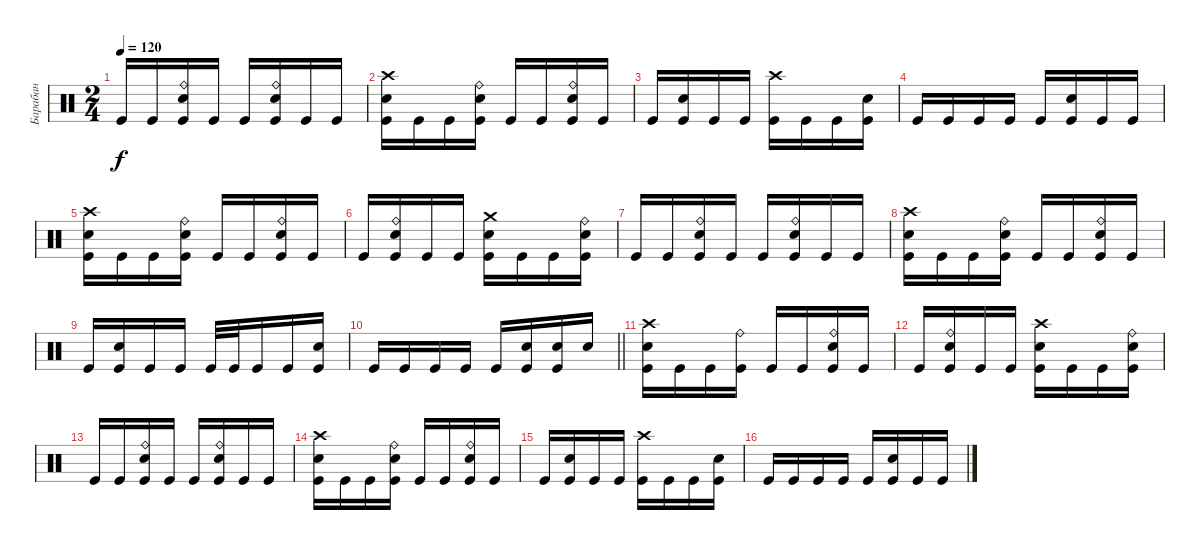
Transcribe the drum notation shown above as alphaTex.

\track ("Барабан" "Барабан") {instrument percussion}
\staff {score}
\articulation defaults
\ts (2 4)
\tempo 120
\clef neutral
\ks c "Kick (hit)".16{dy f} "Kick (hit)".16
("Ride (bell)" "Electric Snare (hit)" "Kick (hit)").16 "Kick (hit)".16 "Kick (hit)".16 ("Ride (bell)" "Electric Snare (hit)" "Kick (hit)").16 "Kick (hit)".16 "Kick (hit)".16 |
("Crash high (hit)" "Electric Snare (hit)" "Kick (hit)").16 "Kick (hit)".16 "Kick (hit)".16 ("Ride (bell)" "Electric Snare (hit)" "Kick (hit)").16 "Kick (hit)".16 "Kick (hit)".16 ("Ride (bell)" "Electric Snare (hit)" "Kick (hit)").16 "Kick (hit)".16 |
"Kick (hit)".16 ("Electric Snare (hit)" "Kick (hit)").16 "Kick (hit)".16 "Kick (hit)".16 ("Crash high (hit)" "Kick (hit)").16 "Kick (hit)".16 "Kick (hit)".16 ("Electric Snare (hit)" "Kick (hit)").16 |
"Kick (hit)".16 "Kick (hit)".16 "Kick (hit)".16 "Kick (hit)".16 "Kick (hit)".16 ("Electric Snare (hit)" "Kick (hit)").16 "Kick (hit)".16 "Kick (hit)".16 |
("Crash high (hit)" "Electric Snare (hit)" "Kick (hit)").16 "Kick (hit)".16 "Kick (hit)".16 ("Ride (bell)" "Electric Snare (hit)" "Kick (hit)").16 "Kick (hit)".16 "Kick (hit)".16 ("Ride (bell)" "Electric Snare (hit)" "Kick (hit)").16 "Kick (hit)".16 |
"Kick (hit)".16 ("Ride (bell)" "Electric Snare (hit)" "Kick (hit)").16 "Kick (hit)".16 "Kick (hit)".16 ("Crash medium (hit)" "Electric Snare (hit)" "Kick (hit)").16 "Kick (hit)".16 "Kick (hit)".16 ("Ride (bell)" "Electric Snare (hit)" "Kick (hit)").16 |
"Kick (hit)".16 "Kick (hit)".16 ("Ride (bell)" "Electric Snare (hit)" "Kick (hit)").16 "Kick (hit)".16 "Kick (hit)".16 ("Ride (bell)" "Electric Snare (hit)" "Kick (hit)").16 "Kick (hit)".16 "Kick (hit)".16 |
("Crash high (hit)" "Electric Snare (hit)" "Kick (hit)").16 "Kick (hit)".16 "Kick (hit)".16 ("Ride (bell)" "Electric Snare (hit)" "Kick (hit)").16 "Kick (hit)".16 "Kick (hit)".16 ("Ride (bell)" "Electric Snare (hit)" "Kick (hit)").16 "Kick (hit)".16 |
"Kick (hit)".16 ("Electric Snare (hit)" "Kick (hit)").16 "Kick (hit)".16 "Kick (hit)".16 "Kick (hit)".32 "Kick (hit)".32 "Kick (hit)".16 "Kick (hit)".16 ("Electric Snare (hit)" "Kick (hit)").16 |
\barLineRight lightlight "Kick (hit)".16 "Kick (hit)".16 "Kick (hit)".16 "Kick (hit)".16 "Kick (hit)".16
("Electric Snare (hit)" "Kick (hit)").16 ("Electric Snare (hit)" "Kick (hit)").16 "Electric Snare (hit)".16 |
("Crash high (hit)" "Electric Snare (hit)" "Kick (hit)").16 "Kick (hit)".16 "Kick (hit)".16 ("Ride (bell)" "Kick (hit)").16 "Kick (hit)".16 "Kick (hit)".16 ("Ride (bell)" "Electric Snare (hit)" "Kick (hit)").16 "Kick (hit)".16 |
"Kick (hit)".16 ("Ride (bell)" "Electric Snare (hit)" "Kick (hit)").16 "Kick (hit)".16 "Kick (hit)".16 ("Crash high (hit)" "Electric Snare (hit)" "Kick (hit)").16 "Kick (hit)".16 "Kick (hit)".16 ("Ride (bell)" "Electric Snare (hit)" "Kick (hit)").16 |
"Kick (hit)".16 "Kick (hit)".16 ("Ride (bell)" "Electric Snare (hit)" "Kick (hit)").16 "Kick (hit)".16 "Kick (hit)".16 ("Ride (bell)" "Electric Snare (hit)" "Kick (hit)").16 "Kick (hit)".16 "Kick (hit)".16 |
("Crash high (hit)" "Electric Snare (hit)" "Kick (hit)").16 "Kick (hit)".16 "Kick (hit)".16 ("Ride (bell)" "Electric Snare (hit)" "Kick (hit)").16 "Kick (hit)".16 "Kick (hit)".16 ("Ride (bell)" "Electric Snare (hit)" "Kick (hit)").16 "Kick (hit)".16 |
"Kick (hit)".16 ("Electric Snare (hit)" "Kick (hit)").16 "Kick (hit)".16 "Kick (hit)".16 ("Crash high (hit)" "Kick (hit)").16 "Kick (hit)".16 "Kick (hit)".16 ("Electric Snare (hit)" "Kick (hit)").16 |
"Kick (hit)".16 "Kick (hit)".16 "Kick (hit)".16 "Kick (hit)".16 "Kick (hit)".16 ("Electric Snare (hit)" "Kick (hit)").16 "Kick (hit)".16 "Kick (hit)".16
